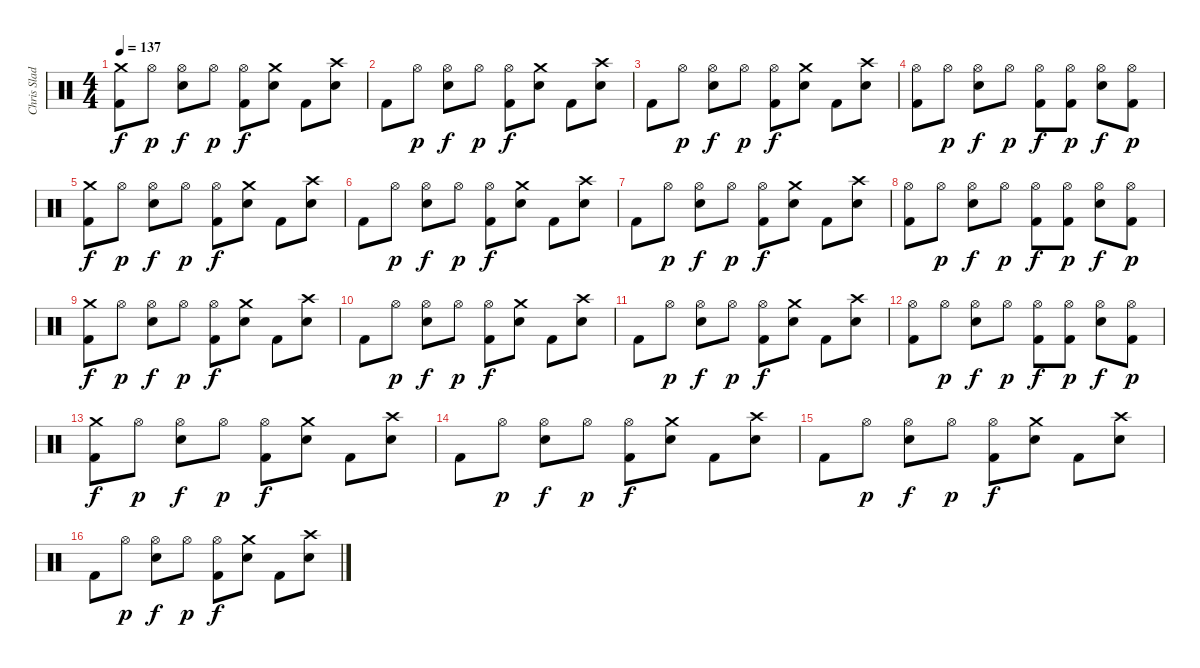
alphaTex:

\track ("Chris Slade / Drums" "Chris Slad") {instrument percussion}
\staff {score}
\articulation defaults
\ts (4 4)
\tempo 137
\clef neutral
\ks c
("Crash medium (hit)" "Kick (hit) 2").8{dy f} "Hi-Hat (open)".8{dy p} ("Hi-Hat (open)" "Electric Snare (hit)").8{dy f} "Hi-Hat (open)".8{dy p} ("Hi-Hat (open)" "Kick (hit) 2").8{dy f} ("Crash medium (hit)" "Electric Snare (hit)").8 "Kick (hit) 2".8 ("Crash high (hit)" "Electric Snare (hit)").8 |
"Kick (hit) 2".8 "Hi-Hat (open)".8{dy p} ("Hi-Hat (open)" "Electric Snare (hit)").8{dy f} "Hi-Hat (open)".8{dy p} ("Kick (hit) 2" "Hi-Hat (open)").8{dy f} ("Electric Snare (hit)" "Crash medium (hit)").8 "Kick (hit) 2".8 ("Electric Snare (hit)" "Crash high (hit)").8 |
"Kick (hit) 2".8 "Hi-Hat (open)".8{dy p} ("Hi-Hat (open)" "Electric Snare (hit)").8{dy f} "Hi-Hat (open)".8{dy p} ("Hi-Hat (open)" "Kick (hit) 2").8{dy f} ("Crash medium (hit)" "Electric Snare (hit)").8 "Kick (hit) 2".8 ("Crash high (hit)" "Electric Snare (hit)").8 |
("Kick (hit) 2" "Hi-Hat (open)").8 "Hi-Hat (open)".8{dy p} ("Hi-Hat (open)" "Electric Snare (hit)").8{dy f} "Hi-Hat (open)".8{dy p} ("Hi-Hat (open)" "Kick (hit) 2").8{dy f} ("Hi-Hat (open)" "Kick (hit) 2").8{dy p} ("Hi-Hat (open)" "Electric Snare (hit)").8{dy f} ("Hi-Hat (open)" "Kick (hit) 2").8{dy p} |
("Crash medium (hit)" "Kick (hit) 2").8{dy f} "Hi-Hat (open)".8{dy p} ("Hi-Hat (open)" "Electric Snare (hit)").8{dy f} "Hi-Hat (open)".8{dy p} ("Hi-Hat (open)" "Kick (hit) 2").8{dy f} ("Crash medium (hit)" "Electric Snare (hit)").8 "Kick (hit) 2".8 ("Crash high (hit)" "Electric Snare (hit)").8 |
"Kick (hit) 2".8 "Hi-Hat (open)".8{dy p} ("Hi-Hat (open)" "Electric Snare (hit)").8{dy f} "Hi-Hat (open)".8{dy p} ("Kick (hit) 2" "Hi-Hat (open)").8{dy f} ("Electric Snare (hit)" "Crash medium (hit)").8 "Kick (hit) 2".8 ("Electric Snare (hit)" "Crash high (hit)").8 |
"Kick (hit) 2".8 "Hi-Hat (open)".8{dy p} ("Hi-Hat (open)" "Electric Snare (hit)").8{dy f} "Hi-Hat (open)".8{dy p} ("Hi-Hat (open)" "Kick (hit) 2").8{dy f} ("Crash medium (hit)" "Electric Snare (hit)").8 "Kick (hit) 2".8 ("Crash high (hit)" "Electric Snare (hit)").8 |
("Kick (hit) 2" "Hi-Hat (open)").8 "Hi-Hat (open)".8{dy p} ("Hi-Hat (open)" "Electric Snare (hit)").8{dy f} "Hi-Hat (open)".8{dy p} ("Hi-Hat (open)" "Kick (hit) 2").8{dy f} ("Hi-Hat (open)" "Kick (hit) 2").8{dy p} ("Hi-Hat (open)" "Electric Snare (hit)").8{dy f} ("Hi-Hat (open)" "Kick (hit) 2").8{dy p} |
("Crash medium (hit)" "Kick (hit) 2").8{dy f} "Hi-Hat (open)".8{dy p} ("Hi-Hat (open)" "Electric Snare (hit)").8{dy f} "Hi-Hat (open)".8{dy p} ("Hi-Hat (open)" "Kick (hit) 2").8{dy f} ("Crash medium (hit)" "Electric Snare (hit)").8 "Kick (hit) 2".8 ("Crash high (hit)" "Electric Snare (hit)").8 |
"Kick (hit) 2".8 "Hi-Hat (open)".8{dy p} ("Hi-Hat (open)" "Electric Snare (hit)").8{dy f} "Hi-Hat (open)".8{dy p} ("Kick (hit) 2" "Hi-Hat (open)").8{dy f} ("Electric Snare (hit)" "Crash medium (hit)").8 "Kick (hit) 2".8 ("Electric Snare (hit)" "Crash high (hit)").8 |
"Kick (hit) 2".8 "Hi-Hat (open)".8{dy p} ("Hi-Hat (open)" "Electric Snare (hit)").8{dy f} "Hi-Hat (open)".8{dy p} ("Hi-Hat (open)" "Kick (hit) 2").8{dy f} ("Crash medium (hit)" "Electric Snare (hit)").8 "Kick (hit) 2".8 ("Crash high (hit)" "Electric Snare (hit)").8 |
("Kick (hit) 2" "Hi-Hat (open)").8 "Hi-Hat (open)".8{dy p} ("Hi-Hat (open)" "Electric Snare (hit)").8{dy f} "Hi-Hat (open)".8{dy p} ("Hi-Hat (open)" "Kick (hit) 2").8{dy f} ("Hi-Hat (open)" "Kick (hit) 2").8{dy p} ("Hi-Hat (open)" "Electric Snare (hit)").8{dy f} ("Hi-Hat (open)" "Kick (hit) 2").8{dy p} |
("Crash medium (hit)" "Kick (hit) 2").8{dy f} "Hi-Hat (open)".8{dy p} ("Hi-Hat (open)" "Electric Snare (hit)").8{dy f} "Hi-Hat (open)".8{dy p} ("Hi-Hat (open)" "Kick (hit) 2").8{dy f} ("Electric Snare (hit)" "Crash medium (hit)").8 "Kick (hit) 2".8 ("Electric Snare (hit)" "Crash high (hit)").8 |
"Kick (hit) 2".8 "Hi-Hat (open)".8{dy p} ("Hi-Hat (open)" "Electric Snare (hit)").8{dy f} "Hi-Hat (open)".8{dy p} ("Hi-Hat (open)" "Kick (hit) 2").8{dy f} ("Crash medium (hit)" "Electric Snare (hit)").8 "Kick (hit) 2".8 ("Crash high (hit)" "Electric Snare (hit)").8 |
"Kick (hit) 2".8 "Hi-Hat (open)".8{dy p} ("Hi-Hat (open)" "Electric Snare (hit)").8{dy f} "Hi-Hat (open)".8{dy p} ("Hi-Hat (open)" "Kick (hit) 2").8{dy f} ("Crash medium (hit)" "Electric Snare (hit)").8 "Kick (hit) 2".8 ("Crash high (hit)" "Electric Snare (hit)").8 |
"Kick (hit) 2".8 "Hi-Hat (open)".8{dy p} ("Hi-Hat (open)" "Electric Snare (hit)").8{dy f} "Hi-Hat (open)".8{dy p} ("Hi-Hat (open)" "Kick (hit) 2").8{dy f} ("Crash medium (hit)" "Electric Snare (hit)").8 "Kick (hit) 2".8 ("Crash high (hit)" "Electric Snare (hit)").8
